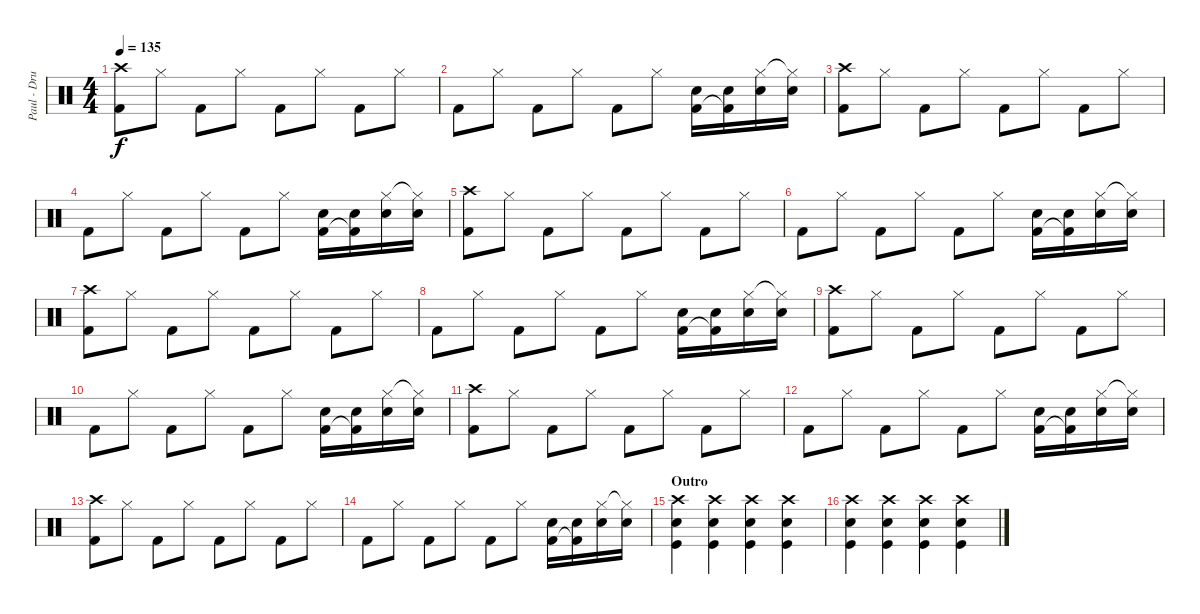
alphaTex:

\track ("Paul - Drums" "Paul - Dru") {instrument percussion}
\staff {score}
\articulation defaults
\ts (4 4)
\tempo 135
\clef neutral
\ks c
("Kick (hit) 2" "Crash high (hit)").8{dy f} "Hi-Hat (closed)".8 "Kick (hit) 2".8 "Hi-Hat (closed)".8 "Kick (hit) 2".8 "Hi-Hat (closed)".8 "Kick (hit) 2".8 "Hi-Hat (closed)".8 |
"Kick (hit) 2".8 "Hi-Hat (closed)".8 "Kick (hit) 2".8 "Hi-Hat (closed)".8 "Kick (hit) 2".8 "Hi-Hat (closed)".8 ("Kick (hit) 2" "Snare (hit) 2").16 ("Kick (hit) 2"{t} "Snare (hit) 2").16 ("Hi-Hat (closed)" "Snare (hit) 2").16 ("Hi-Hat (closed)"{t} "Snare (hit) 2").16 |
("Kick (hit) 2" "Crash high (hit)").8 "Hi-Hat (closed)".8 "Kick (hit) 2".8 "Hi-Hat (closed)".8 "Kick (hit) 2".8 "Hi-Hat (closed)".8 "Kick (hit) 2".8 "Hi-Hat (closed)".8 |
"Kick (hit) 2".8 "Hi-Hat (closed)".8 "Kick (hit) 2".8 "Hi-Hat (closed)".8 "Kick (hit) 2".8 "Hi-Hat (closed)".8 ("Kick (hit) 2" "Snare (hit) 2").16 ("Kick (hit) 2"{t} "Snare (hit) 2").16 ("Hi-Hat (closed)" "Snare (hit) 2").16 ("Hi-Hat (closed)"{t} "Snare (hit) 2").16 |
("Kick (hit) 2" "Crash high (hit)").8 "Hi-Hat (closed)".8 "Kick (hit) 2".8 "Hi-Hat (closed)".8 "Kick (hit) 2".8 "Hi-Hat (closed)".8 "Kick (hit) 2".8 "Hi-Hat (closed)".8 |
"Kick (hit) 2".8 "Hi-Hat (closed)".8 "Kick (hit) 2".8 "Hi-Hat (closed)".8 "Kick (hit) 2".8 "Hi-Hat (closed)".8 ("Kick (hit) 2" "Snare (hit) 2").16 ("Kick (hit) 2"{t} "Snare (hit) 2").16 ("Hi-Hat (closed)" "Snare (hit) 2").16 ("Hi-Hat (closed)"{t} "Snare (hit) 2").16 |
("Kick (hit) 2" "Crash high (hit)").8 "Hi-Hat (closed)".8 "Kick (hit) 2".8 "Hi-Hat (closed)".8 "Kick (hit) 2".8 "Hi-Hat (closed)".8 "Kick (hit) 2".8 "Hi-Hat (closed)".8 |
"Kick (hit) 2".8 "Hi-Hat (closed)".8 "Kick (hit) 2".8 "Hi-Hat (closed)".8 "Kick (hit) 2".8 "Hi-Hat (closed)".8 ("Kick (hit) 2" "Snare (hit) 2").16 ("Kick (hit) 2"{t} "Snare (hit) 2").16 ("Hi-Hat (closed)" "Snare (hit) 2").16 ("Hi-Hat (closed)"{t} "Snare (hit) 2").16 |
("Kick (hit) 2" "Crash high (hit)").8 "Hi-Hat (closed)".8 "Kick (hit) 2".8 "Hi-Hat (closed)".8 "Kick (hit) 2".8 "Hi-Hat (closed)".8 "Kick (hit) 2".8 "Hi-Hat (closed)".8 |
"Kick (hit) 2".8 "Hi-Hat (closed)".8 "Kick (hit) 2".8 "Hi-Hat (closed)".8 "Kick (hit) 2".8 "Hi-Hat (closed)".8 ("Kick (hit) 2" "Snare (hit) 2").16 ("Kick (hit) 2"{t} "Snare (hit) 2").16 ("Hi-Hat (closed)" "Snare (hit) 2").16 ("Hi-Hat (closed)"{t} "Snare (hit) 2").16 |
("Kick (hit) 2" "Crash high (hit)").8 "Hi-Hat (closed)".8 "Kick (hit) 2".8 "Hi-Hat (closed)".8 "Kick (hit) 2".8 "Hi-Hat (closed)".8 "Kick (hit) 2".8 "Hi-Hat (closed)".8 |
"Kick (hit) 2".8 "Hi-Hat (closed)".8 "Kick (hit) 2".8 "Hi-Hat (closed)".8 "Kick (hit) 2".8 "Hi-Hat (closed)".8 ("Kick (hit) 2" "Snare (hit) 2").16 ("Kick (hit) 2"{t} "Snare (hit) 2").16 ("Hi-Hat (closed)" "Snare (hit) 2").16 ("Hi-Hat (closed)"{t} "Snare (hit) 2").16 |
("Kick (hit) 2" "Crash high (hit)").8 "Hi-Hat (closed)".8 "Kick (hit) 2".8 "Hi-Hat (closed)".8 "Kick (hit) 2".8 "Hi-Hat (closed)".8 "Kick (hit) 2".8 "Hi-Hat (closed)".8 |
"Kick (hit) 2".8 "Hi-Hat (closed)".8 "Kick (hit) 2".8 "Hi-Hat (closed)".8 "Kick (hit) 2".8 "Hi-Hat (closed)".8 ("Kick (hit) 2" "Snare (hit) 2").16 ("Kick (hit) 2"{t} "Snare (hit) 2").16 ("Hi-Hat (closed)" "Snare (hit) 2").16 ("Hi-Hat (closed)"{t} "Snare (hit) 2").16 |
\section ("" "Outro")
("Kick (hit)" "Crash high (hit)" "Snare (hit) 2").4 ("Kick (hit)" "Crash high (hit)" "Snare (hit) 2").4 ("Kick (hit)" "Crash high (hit)" "Snare (hit) 2").4 ("Kick (hit)" "Crash high (hit)" "Snare (hit) 2").4 |
("Kick (hit)" "Crash high (hit)" "Snare (hit) 2").4 ("Kick (hit)" "Crash high (hit)" "Snare (hit) 2").4 ("Kick (hit)" "Crash high (hit)" "Snare (hit) 2").4 ("Kick (hit)" "Crash high (hit)" "Snare (hit) 2").4
